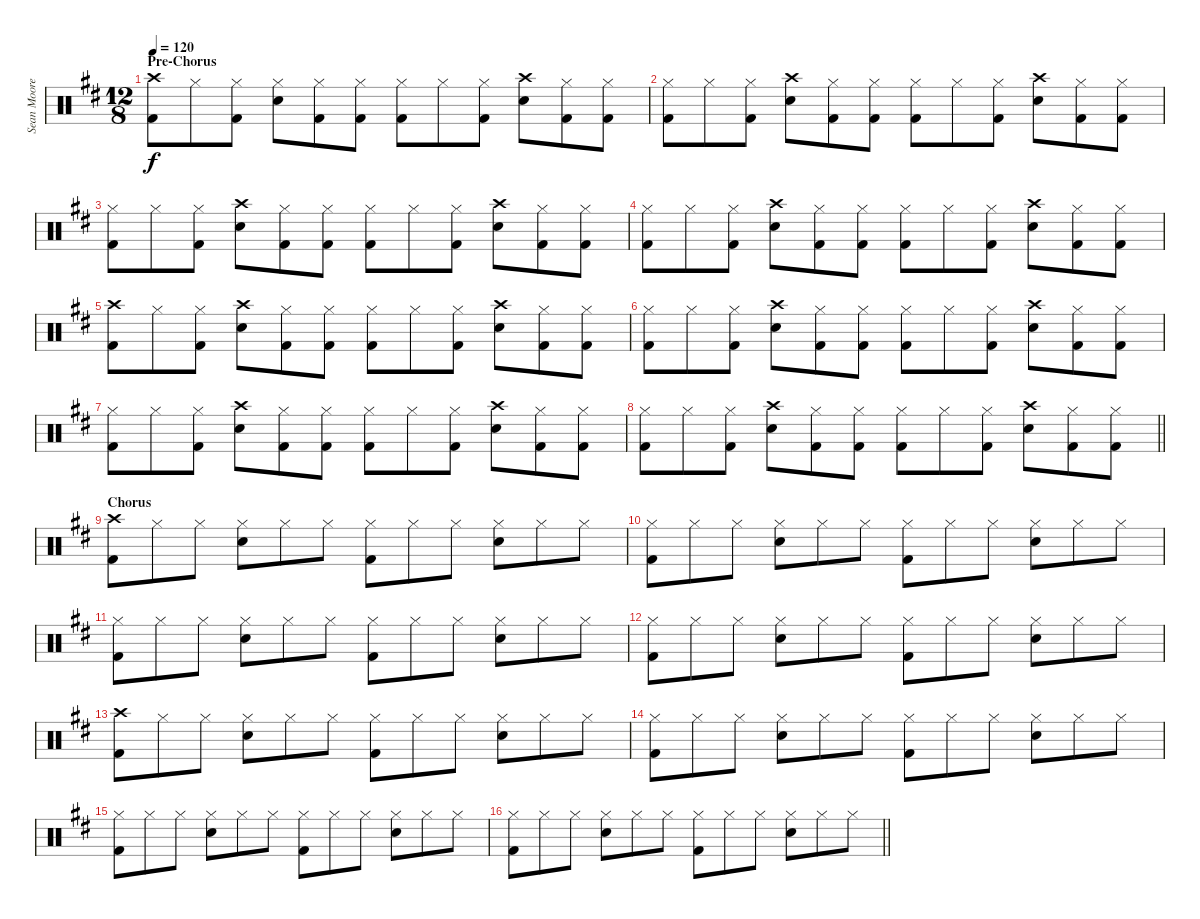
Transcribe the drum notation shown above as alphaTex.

\track ("Sean Moore (Drums)" "Sean Moore") {instrument percussion}
\staff {score}
\articulation defaults
\ts (12 8)
\section ("" "Pre-Chorus")
\tempo 120
\clef neutral
\ks d
("Crash high (hit)" "Kick (hit) 2").8{dy f} "Hi-Hat (closed)".8 ("Hi-Hat (closed)" "Kick (hit) 2").8 ("Hi-Hat (closed)" "Electric Snare (hit)").8 ("Hi-Hat (closed)" "Kick (hit) 2").8 ("Hi-Hat (closed)" "Kick (hit) 2").8 ("Hi-Hat (closed)" "Kick (hit) 2").8 "Hi-Hat (closed)".8 ("Hi-Hat (closed)" "Kick (hit) 2").8 ("Crash high (hit)" "Electric Snare (hit)").8 ("Hi-Hat (closed)" "Kick (hit) 2").8 ("Hi-Hat (closed)" "Kick (hit) 2").8 |
("Hi-Hat (closed)" "Kick (hit) 2").8 "Hi-Hat (closed)".8 ("Hi-Hat (closed)" "Kick (hit) 2").8 ("Crash high (hit)" "Electric Snare (hit)").8 ("Hi-Hat (closed)" "Kick (hit) 2").8 ("Hi-Hat (closed)" "Kick (hit) 2").8 ("Hi-Hat (closed)" "Kick (hit) 2").8 "Hi-Hat (closed)".8 ("Hi-Hat (closed)" "Kick (hit) 2").8 ("Crash high (hit)" "Electric Snare (hit)").8 ("Hi-Hat (closed)" "Kick (hit) 2").8 ("Hi-Hat (closed)" "Kick (hit) 2").8 |
("Hi-Hat (closed)" "Kick (hit) 2").8 "Hi-Hat (closed)".8 ("Hi-Hat (closed)" "Kick (hit) 2").8 ("Crash high (hit)" "Electric Snare (hit)").8 ("Hi-Hat (closed)" "Kick (hit) 2").8 ("Hi-Hat (closed)" "Kick (hit) 2").8 ("Hi-Hat (closed)" "Kick (hit) 2").8 "Hi-Hat (closed)".8 ("Hi-Hat (closed)" "Kick (hit) 2").8 ("Crash high (hit)" "Electric Snare (hit)").8 ("Hi-Hat (closed)" "Kick (hit) 2").8 ("Hi-Hat (closed)" "Kick (hit) 2").8 |
("Hi-Hat (closed)" "Kick (hit) 2").8 "Hi-Hat (closed)".8 ("Hi-Hat (closed)" "Kick (hit) 2").8 ("Crash high (hit)" "Electric Snare (hit)").8 ("Hi-Hat (closed)" "Kick (hit) 2").8 ("Hi-Hat (closed)" "Kick (hit) 2").8 ("Hi-Hat (closed)" "Kick (hit) 2").8 "Hi-Hat (closed)".8 ("Hi-Hat (closed)" "Kick (hit) 2").8 ("Crash high (hit)" "Electric Snare (hit)").8 ("Hi-Hat (closed)" "Kick (hit) 2").8 ("Hi-Hat (closed)" "Kick (hit) 2").8 |
("Crash high (hit)" "Kick (hit) 2").8 "Hi-Hat (closed)".8 ("Hi-Hat (closed)" "Kick (hit) 2").8 ("Crash high (hit)" "Electric Snare (hit)").8 ("Hi-Hat (closed)" "Kick (hit) 2").8 ("Hi-Hat (closed)" "Kick (hit) 2").8 ("Hi-Hat (closed)" "Kick (hit) 2").8 "Hi-Hat (closed)".8 ("Hi-Hat (closed)" "Kick (hit) 2").8 ("Crash high (hit)" "Electric Snare (hit)").8 ("Hi-Hat (closed)" "Kick (hit) 2").8 ("Hi-Hat (closed)" "Kick (hit) 2").8 |
("Hi-Hat (closed)" "Kick (hit) 2").8 "Hi-Hat (closed)".8 ("Hi-Hat (closed)" "Kick (hit) 2").8 ("Crash high (hit)" "Electric Snare (hit)").8 ("Hi-Hat (closed)" "Kick (hit) 2").8 ("Hi-Hat (closed)" "Kick (hit) 2").8 ("Hi-Hat (closed)" "Kick (hit) 2").8 "Hi-Hat (closed)".8 ("Hi-Hat (closed)" "Kick (hit) 2").8 ("Crash high (hit)" "Electric Snare (hit)").8 ("Hi-Hat (closed)" "Kick (hit) 2").8 ("Hi-Hat (closed)" "Kick (hit) 2").8 |
("Hi-Hat (closed)" "Kick (hit) 2").8 "Hi-Hat (closed)".8 ("Hi-Hat (closed)" "Kick (hit) 2").8 ("Crash high (hit)" "Electric Snare (hit)").8 ("Hi-Hat (closed)" "Kick (hit) 2").8 ("Hi-Hat (closed)" "Kick (hit) 2").8 ("Hi-Hat (closed)" "Kick (hit) 2").8 "Hi-Hat (closed)".8 ("Hi-Hat (closed)" "Kick (hit) 2").8 ("Crash high (hit)" "Electric Snare (hit)").8 ("Hi-Hat (closed)" "Kick (hit) 2").8 ("Hi-Hat (closed)" "Kick (hit) 2").8 |
\barLineRight lightlight
("Hi-Hat (closed)" "Kick (hit) 2").8 "Hi-Hat (closed)".8 ("Hi-Hat (closed)" "Kick (hit) 2").8 ("Crash high (hit)" "Electric Snare (hit)").8 ("Hi-Hat (closed)" "Kick (hit) 2").8 ("Hi-Hat (closed)" "Kick (hit) 2").8 ("Hi-Hat (closed)" "Kick (hit) 2").8 "Hi-Hat (closed)".8 ("Hi-Hat (closed)" "Kick (hit) 2").8 ("Crash high (hit)" "Electric Snare (hit)").8 ("Hi-Hat (closed)" "Kick (hit) 2").8 ("Hi-Hat (closed)" "Kick (hit) 2").8 |
\section ("" "Chorus")
("Crash high (hit)" "Kick (hit) 2").8 "Hi-Hat (closed)".8 "Hi-Hat (closed)".8 ("Hi-Hat (closed)" "Electric Snare (hit)").8 "Hi-Hat (closed)".8 "Hi-Hat (closed)".8 ("Hi-Hat (closed)" "Kick (hit) 2").8 "Hi-Hat (closed)".8 "Hi-Hat (closed)".8 ("Hi-Hat (closed)" "Electric Snare (hit)").8 "Hi-Hat (closed)".8 "Hi-Hat (closed)".8 |
("Hi-Hat (closed)" "Kick (hit) 2").8 "Hi-Hat (closed)".8 "Hi-Hat (closed)".8 ("Hi-Hat (closed)" "Electric Snare (hit)").8 "Hi-Hat (closed)".8 "Hi-Hat (closed)".8 ("Hi-Hat (closed)" "Kick (hit) 2").8 "Hi-Hat (closed)".8 "Hi-Hat (closed)".8 ("Hi-Hat (closed)" "Electric Snare (hit)").8 "Hi-Hat (closed)".8 "Hi-Hat (closed)".8 |
("Hi-Hat (closed)" "Kick (hit) 2").8 "Hi-Hat (closed)".8 "Hi-Hat (closed)".8 ("Hi-Hat (closed)" "Electric Snare (hit)").8 "Hi-Hat (closed)".8 "Hi-Hat (closed)".8 ("Hi-Hat (closed)" "Kick (hit) 2").8 "Hi-Hat (closed)".8 "Hi-Hat (closed)".8 ("Hi-Hat (closed)" "Electric Snare (hit)").8 "Hi-Hat (closed)".8 "Hi-Hat (closed)".8 |
("Hi-Hat (closed)" "Kick (hit) 2").8 "Hi-Hat (closed)".8 "Hi-Hat (closed)".8 ("Hi-Hat (closed)" "Electric Snare (hit)").8 "Hi-Hat (closed)".8 "Hi-Hat (closed)".8 ("Hi-Hat (closed)" "Kick (hit) 2").8 "Hi-Hat (closed)".8 "Hi-Hat (closed)".8 ("Hi-Hat (closed)" "Electric Snare (hit)").8 "Hi-Hat (closed)".8 "Hi-Hat (closed)".8 |
("Crash high (hit)" "Kick (hit) 2").8 "Hi-Hat (closed)".8 "Hi-Hat (closed)".8 ("Hi-Hat (closed)" "Electric Snare (hit)").8 "Hi-Hat (closed)".8 "Hi-Hat (closed)".8 ("Hi-Hat (closed)" "Kick (hit) 2").8 "Hi-Hat (closed)".8 "Hi-Hat (closed)".8 ("Hi-Hat (closed)" "Electric Snare (hit)").8 "Hi-Hat (closed)".8 "Hi-Hat (closed)".8 |
("Hi-Hat (closed)" "Kick (hit) 2").8 "Hi-Hat (closed)".8 "Hi-Hat (closed)".8 ("Hi-Hat (closed)" "Electric Snare (hit)").8 "Hi-Hat (closed)".8 "Hi-Hat (closed)".8 ("Hi-Hat (closed)" "Kick (hit) 2").8 "Hi-Hat (closed)".8 "Hi-Hat (closed)".8 ("Hi-Hat (closed)" "Electric Snare (hit)").8 "Hi-Hat (closed)".8 "Hi-Hat (closed)".8 |
("Hi-Hat (closed)" "Kick (hit) 2").8 "Hi-Hat (closed)".8 "Hi-Hat (closed)".8 ("Hi-Hat (closed)" "Electric Snare (hit)").8 "Hi-Hat (closed)".8 "Hi-Hat (closed)".8 ("Hi-Hat (closed)" "Kick (hit) 2").8 "Hi-Hat (closed)".8 "Hi-Hat (closed)".8 ("Hi-Hat (closed)" "Electric Snare (hit)").8 "Hi-Hat (closed)".8 "Hi-Hat (closed)".8 |
\barLineRight lightlight
("Hi-Hat (closed)" "Kick (hit) 2").8 "Hi-Hat (closed)".8 "Hi-Hat (closed)".8 ("Hi-Hat (closed)" "Electric Snare (hit)").8 "Hi-Hat (closed)".8 "Hi-Hat (closed)".8 ("Hi-Hat (closed)" "Kick (hit) 2").8 "Hi-Hat (closed)".8 "Hi-Hat (closed)".8 ("Hi-Hat (closed)" "Electric Snare (hit)").8 "Hi-Hat (closed)".8 "Hi-Hat (closed)".8
